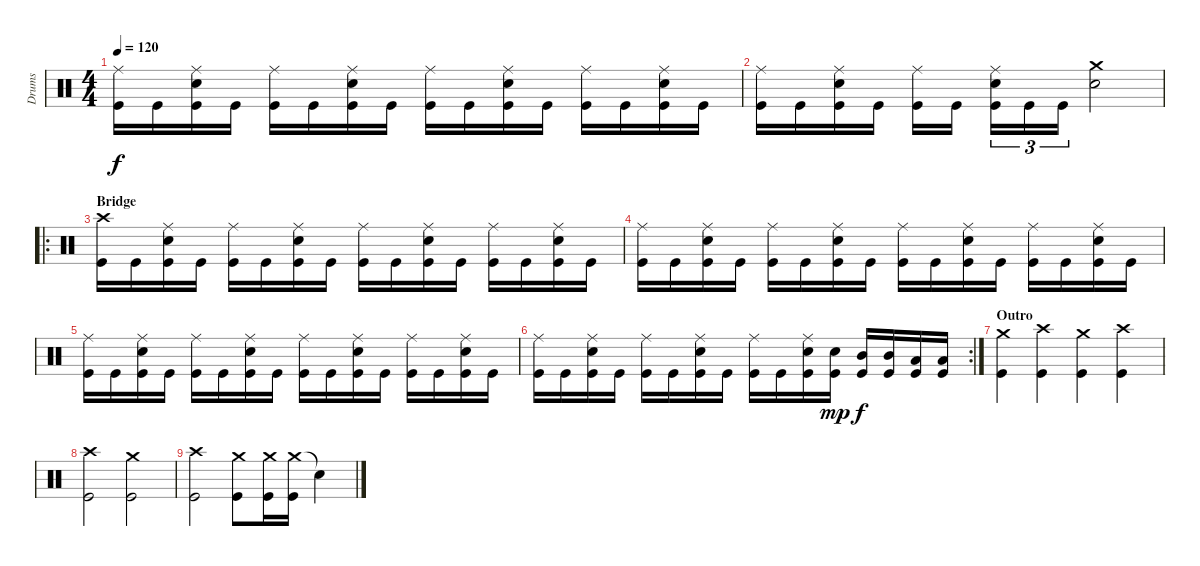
\track ("Drums" "Drums") {instrument percussion}
\staff {score}
\articulation defaults
\ts (4 4)
\tempo 120
\clef neutral
\ks c
("Ride (middle)" "Kick (hit)").16{dy f} "Kick (hit)".16 ("Ride (middle)" "Electric Snare (hit)" "Kick (hit)").16 "Kick (hit)".16 ("Ride (middle)" "Kick (hit)").16 "Kick (hit)".16 ("Ride (middle)" "Electric Snare (hit)" "Kick (hit)").16 "Kick (hit)".16 ("Ride (middle)" "Kick (hit)").16 "Kick (hit)".16 ("Ride (middle)" "Electric Snare (hit)" "Kick (hit)").16 "Kick (hit)".16 ("Ride (middle)" "Kick (hit)").16 "Kick (hit)".16 ("Ride (middle)" "Electric Snare (hit)" "Kick (hit)").16 "Kick (hit)".16 |
("Ride (middle)" "Kick (hit)").16 "Kick (hit)".16 ("Ride (middle)" "Electric Snare (hit)" "Kick (hit)").16 "Kick (hit)".16 ("Ride (middle)" "Kick (hit)").16 "Kick (hit)".16 ("Ride (middle)" "Electric Snare (hit)" "Kick (hit)").16{tu (3 2)} "Kick (hit)".16{tu (3 2)} "Kick (hit)".16{tu (3 2)} ("Crash medium (hit)" "Electric Snare (hit)").2 |
\ro
\section ("" "Bridge")
("Crash high (hit)" "Kick (hit)").16 "Kick (hit)".16 ("Ride (middle)" "Electric Snare (hit)" "Kick (hit)").16 "Kick (hit)".16 ("Ride (middle)" "Kick (hit)").16 "Kick (hit)".16 ("Ride (middle)" "Electric Snare (hit)" "Kick (hit)").16 "Kick (hit)".16 ("Ride (middle)" "Kick (hit)").16 "Kick (hit)".16 ("Ride (middle)" "Electric Snare (hit)" "Kick (hit)").16 "Kick (hit)".16 ("Ride (middle)" "Kick (hit)").16 "Kick (hit)".16 ("Ride (middle)" "Electric Snare (hit)" "Kick (hit)").16 "Kick (hit)".16 |
("Ride (middle)" "Kick (hit)").16 "Kick (hit)".16 ("Ride (middle)" "Electric Snare (hit)" "Kick (hit)").16 "Kick (hit)".16 ("Ride (middle)" "Kick (hit)").16 "Kick (hit)".16 ("Ride (middle)" "Electric Snare (hit)" "Kick (hit)").16 "Kick (hit)".16 ("Ride (middle)" "Kick (hit)").16 "Kick (hit)".16 ("Ride (middle)" "Electric Snare (hit)" "Kick (hit)").16 "Kick (hit)".16 ("Ride (middle)" "Kick (hit)").16 "Kick (hit)".16 ("Ride (middle)" "Electric Snare (hit)" "Kick (hit)").16 "Kick (hit)".16 |
("Ride (middle)" "Kick (hit)").16 "Kick (hit)".16 ("Ride (middle)" "Electric Snare (hit)" "Kick (hit)").16 "Kick (hit)".16 ("Ride (middle)" "Kick (hit)").16 "Kick (hit)".16 ("Ride (middle)" "Electric Snare (hit)" "Kick (hit)").16 "Kick (hit)".16 ("Ride (middle)" "Kick (hit)").16 "Kick (hit)".16 ("Ride (middle)" "Electric Snare (hit)" "Kick (hit)").16 "Kick (hit)".16 ("Ride (middle)" "Kick (hit)").16 "Kick (hit)".16 ("Ride (middle)" "Electric Snare (hit)" "Kick (hit)").16 "Kick (hit)".16 |
\rc 2
("Ride (middle)" "Kick (hit)").16 "Kick (hit)".16 ("Ride (middle)" "Electric Snare (hit)" "Kick (hit)").16 "Kick (hit)".16 ("Ride (middle)" "Kick (hit)").16 "Kick (hit)".16 ("Ride (middle)" "Electric Snare (hit)" "Kick (hit)").16 "Kick (hit)".16 ("Ride (middle)" "Kick (hit)").16 "Kick (hit)".16 ("Ride (middle)" "Electric Snare (hit)" "Kick (hit)").16 ("Electric Snare (hit)" "Kick (hit)").16{dy mp} ("Mid Tom (hit)" "Kick (hit)").16{dy f} ("Mid Tom (hit)" "Kick (hit)").16 ("Low Tom (hit)" "Kick (hit)").16 ("Low Tom (hit)" "Kick (hit)").16 |
\section ("" "Outro")
("Crash medium (hit)" "Kick (hit)").4 ("Crash high (hit)" "Kick (hit)").4 ("Crash medium (hit)" "Kick (hit)").4 ("Crash high (hit)" "Kick (hit)").4 |
("Crash high (hit)" "Kick (hit)").2 ("Crash medium (hit)" "Kick (hit)").2 |
("Crash high (hit)" "Kick (hit)").2 ("Crash medium (hit)" "Kick (hit)").8 ("Crash medium (hit)" "Kick (hit)").16 ("Crash medium (hit)" "Kick (hit)").16 "Snare (hit)"{t}.4
